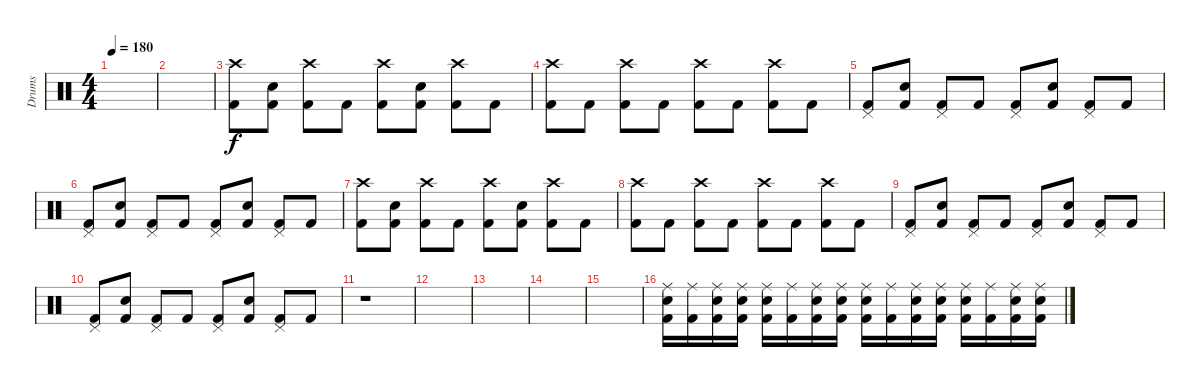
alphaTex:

\track ("Drums" "Drums") {instrument percussion}
\staff {score}
\articulation defaults
\ts (4 4)
\tempo 180
\clef neutral
\ks c
|
|
("Crash high (hit)" "Kick (hit) 2").8 ("Snare (hit) 2" "Kick (hit) 2").8 ("Crash high (hit)" "Kick (hit) 2").8 "Kick (hit) 2".8 ("Crash high (hit)" "Kick (hit) 2").8 ("Snare (hit) 2" "Kick (hit) 2").8 ("Crash high (hit)" "Kick (hit) 2").8 "Kick (hit) 2".8 |
("Crash high (hit)" "Kick (hit) 2").8 "Kick (hit) 2".8 ("Crash high (hit)" "Kick (hit) 2").8 "Kick (hit) 2".8 ("Crash high (hit)" "Kick (hit) 2").8 "Kick (hit) 2".8 ("Crash high (hit)" "Kick (hit) 2").8 "Kick (hit) 2".8 |
("Pedal Hi-Hat (hit)" "Kick (hit) 2").8 ("Snare (hit) 2" "Kick (hit) 2").8 ("Pedal Hi-Hat (hit)" "Kick (hit) 2").8 "Kick (hit) 2".8 ("Pedal Hi-Hat (hit)" "Kick (hit) 2").8 ("Snare (hit) 2" "Kick (hit) 2").8 ("Pedal Hi-Hat (hit)" "Kick (hit) 2").8 "Kick (hit) 2".8 |
("Pedal Hi-Hat (hit)" "Kick (hit) 2").8 ("Snare (hit) 2" "Kick (hit) 2").8 ("Pedal Hi-Hat (hit)" "Kick (hit) 2").8 "Kick (hit) 2".8 ("Pedal Hi-Hat (hit)" "Kick (hit) 2").8 ("Snare (hit) 2" "Kick (hit) 2").8 ("Pedal Hi-Hat (hit)" "Kick (hit) 2").8 "Kick (hit) 2".8 |
("Crash high (hit)" "Kick (hit) 2").8 ("Snare (hit) 2" "Kick (hit) 2").8 ("Crash high (hit)" "Kick (hit) 2").8 "Kick (hit) 2".8 ("Crash high (hit)" "Kick (hit) 2").8 ("Snare (hit) 2" "Kick (hit) 2").8 ("Crash high (hit)" "Kick (hit) 2").8 "Kick (hit) 2".8 |
("Crash high (hit)" "Kick (hit) 2").8 "Kick (hit) 2".8 ("Crash high (hit)" "Kick (hit) 2").8 "Kick (hit) 2".8 ("Crash high (hit)" "Kick (hit) 2").8 "Kick (hit) 2".8 ("Crash high (hit)" "Kick (hit) 2").8 "Kick (hit) 2".8 |
("Pedal Hi-Hat (hit)" "Kick (hit) 2").8 ("Snare (hit) 2" "Kick (hit) 2").8 ("Pedal Hi-Hat (hit)" "Kick (hit) 2").8 "Kick (hit) 2".8 ("Pedal Hi-Hat (hit)" "Kick (hit) 2").8 ("Snare (hit) 2" "Kick (hit) 2").8 ("Pedal Hi-Hat (hit)" "Kick (hit) 2").8 "Kick (hit) 2".8 |
("Pedal Hi-Hat (hit)" "Kick (hit) 2").8 ("Snare (hit) 2" "Kick (hit) 2").8 ("Pedal Hi-Hat (hit)" "Kick (hit) 2").8 "Kick (hit) 2".8 ("Pedal Hi-Hat (hit)" "Kick (hit) 2").8 ("Snare (hit) 2" "Kick (hit) 2").8 ("Pedal Hi-Hat (hit)" "Kick (hit) 2").8 "Kick (hit) 2".8 |
r.1 |
|
|
|
|
("Ride (middle)" "Snare (hit) 2" "Kick (hit) 2").16 ("Ride (middle)" "Kick (hit) 2").16 ("Ride (middle)" "Snare (hit) 2" "Kick (hit) 2").16 ("Ride (middle)" "Snare (hit) 2" "Kick (hit) 2").16 ("Ride (middle)" "Snare (hit) 2" "Kick (hit) 2").16 ("Ride (middle)" "Kick (hit) 2").16 ("Ride (middle)" "Snare (hit) 2" "Kick (hit) 2").16 ("Ride (middle)" "Snare (hit) 2" "Kick (hit) 2").16 ("Ride (middle)" "Snare (hit) 2" "Kick (hit) 2").16 ("Ride (middle)" "Kick (hit) 2").16 ("Ride (middle)" "Snare (hit) 2" "Kick (hit) 2").16 ("Ride (middle)" "Snare (hit) 2" "Kick (hit) 2").16 ("Ride (middle)" "Snare (hit) 2" "Kick (hit) 2").16 ("Ride (middle)" "Kick (hit) 2").16 ("Ride (middle)" "Snare (hit) 2" "Kick (hit) 2").16 ("Ride (middle)" "Snare (hit) 2" "Kick (hit) 2").16
